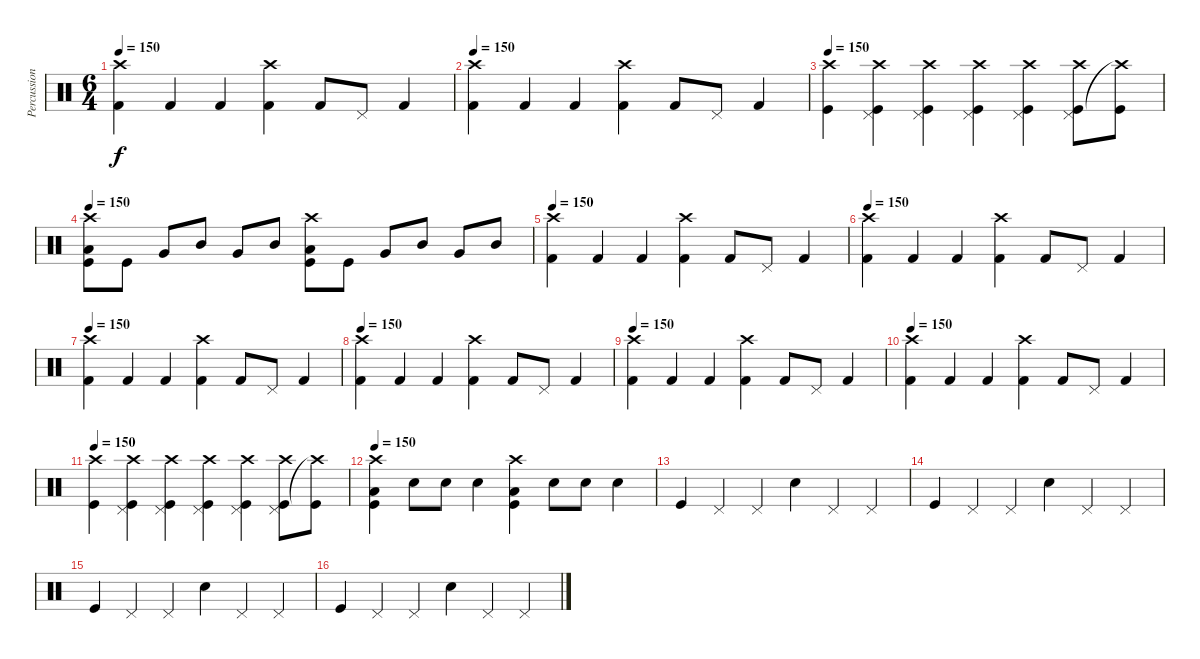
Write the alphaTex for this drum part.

\track ("Percussion" "Percussion") {instrument percussion}
\staff {score}
\articulation defaults
\ts (6 4)
\tempo 150
\clef neutral
\ks c
("Kick (hit) 2" "Crash high (hit)").4{dy f} "Kick (hit) 2".4 "Kick (hit) 2".4 ("Kick (hit) 2" "Crash high (hit)").4 "Kick (hit) 2".8 "Pedal Hi-Hat (hit)".8 "Kick (hit) 2".4 |
\tempo 150
("Kick (hit) 2" "Crash high (hit)").4 "Kick (hit) 2".4 "Kick (hit) 2".4 ("Kick (hit) 2" "Crash high (hit)").4 "Kick (hit) 2".8 "Pedal Hi-Hat (hit)".8 "Kick (hit) 2".4 |
\tempo 150
("Kick (hit)" "Crash high (hit)").4 ("Kick (hit)" "Pedal Hi-Hat (hit)" "Crash high (hit)").4 ("Kick (hit)" "Pedal Hi-Hat (hit)" "Crash high (hit)").4 ("Kick (hit)" "Pedal Hi-Hat (hit)" "Crash high (hit)").4 ("Kick (hit)" "Pedal Hi-Hat (hit)" "Crash high (hit)").4 ("Kick (hit)" "Pedal Hi-Hat (hit)" "Crash high (hit)").8 ("Kick (hit)" "Crash high (hit)"{t}).8 |
\tempo 150
("Kick (hit)" "Low Floor Tom (hit)" "Crash high (hit)").8 "Kick (hit)".8 "Very Low Tom (hit)".8 "Mid Tom (hit)".8 "Very Low Tom (hit)".8 "Mid Tom (hit)".8 ("Kick (hit)" "Low Floor Tom (hit)" "Crash high (hit)").8 "Kick (hit)".8 "Very Low Tom (hit)".8 "Mid Tom (hit)".8 "Very Low Tom (hit)".8 "Mid Tom (hit)".8 |
\tempo 150
("Kick (hit) 2" "Crash high (hit)").4 "Kick (hit) 2".4 "Kick (hit) 2".4 ("Kick (hit) 2" "Crash high (hit)").4 "Kick (hit) 2".8 "Pedal Hi-Hat (hit)".8 "Kick (hit) 2".4 |
\tempo 150
("Kick (hit) 2" "Crash high (hit)").4 "Kick (hit) 2".4 "Kick (hit) 2".4 ("Kick (hit) 2" "Crash high (hit)").4 "Kick (hit) 2".8 "Pedal Hi-Hat (hit)".8 "Kick (hit) 2".4 |
\tempo 150
("Kick (hit) 2" "Crash high (hit)").4 "Kick (hit) 2".4 "Kick (hit) 2".4 ("Kick (hit) 2" "Crash high (hit)").4 "Kick (hit) 2".8 "Pedal Hi-Hat (hit)".8 "Kick (hit) 2".4 |
\tempo 150
("Kick (hit) 2" "Crash high (hit)").4 "Kick (hit) 2".4 "Kick (hit) 2".4 ("Kick (hit) 2" "Crash high (hit)").4 "Kick (hit) 2".8 "Pedal Hi-Hat (hit)".8 "Kick (hit) 2".4 |
\tempo 150
("Kick (hit) 2" "Crash high (hit)").4 "Kick (hit) 2".4 "Kick (hit) 2".4 ("Kick (hit) 2" "Crash high (hit)").4 "Kick (hit) 2".8 "Pedal Hi-Hat (hit)".8 "Kick (hit) 2".4 |
\tempo 150
("Kick (hit) 2" "Crash high (hit)").4 "Kick (hit) 2".4 "Kick (hit) 2".4 ("Kick (hit) 2" "Crash high (hit)").4 "Kick (hit) 2".8 "Pedal Hi-Hat (hit)".8 "Kick (hit) 2".4 |
\tempo 150
("Kick (hit)" "Crash high (hit)").4 ("Kick (hit)" "Pedal Hi-Hat (hit)" "Crash high (hit)").4 ("Kick (hit)" "Pedal Hi-Hat (hit)" "Crash high (hit)").4 ("Kick (hit)" "Pedal Hi-Hat (hit)" "Crash high (hit)").4 ("Kick (hit)" "Pedal Hi-Hat (hit)" "Crash high (hit)").4 ("Kick (hit)" "Pedal Hi-Hat (hit)" "Crash high (hit)").8 ("Kick (hit)" "Crash high (hit)"{t}).8 |
\tempo 136
\tempo 150
("Kick (hit)" "Low Floor Tom (hit)" "Crash high (hit)").4 "Snare (hit) 2".8 "Snare (hit) 2".8 "Snare (hit) 2".4 ("Kick (hit)" "Low Floor Tom (hit)" "Crash high (hit)").4 "Snare (hit) 2".8 "Snare (hit) 2".8 "Snare (hit) 2".4 |
"Kick (hit)".4 "Pedal Hi-Hat (hit)".4 "Pedal Hi-Hat (hit)".4 "Snare (hit) 2".4 "Pedal Hi-Hat (hit)".4 "Pedal Hi-Hat (hit)".4 |
"Kick (hit)".4 "Pedal Hi-Hat (hit)".4 "Pedal Hi-Hat (hit)".4 "Snare (hit) 2".4 "Pedal Hi-Hat (hit)".4 "Pedal Hi-Hat (hit)".4 |
"Kick (hit)".4 "Pedal Hi-Hat (hit)".4 "Pedal Hi-Hat (hit)".4 "Snare (hit) 2".4 "Pedal Hi-Hat (hit)".4 "Pedal Hi-Hat (hit)".4 |
"Kick (hit)".4 "Pedal Hi-Hat (hit)".4 "Pedal Hi-Hat (hit)".4 "Snare (hit) 2".4 "Pedal Hi-Hat (hit)".4 "Pedal Hi-Hat (hit)".4
